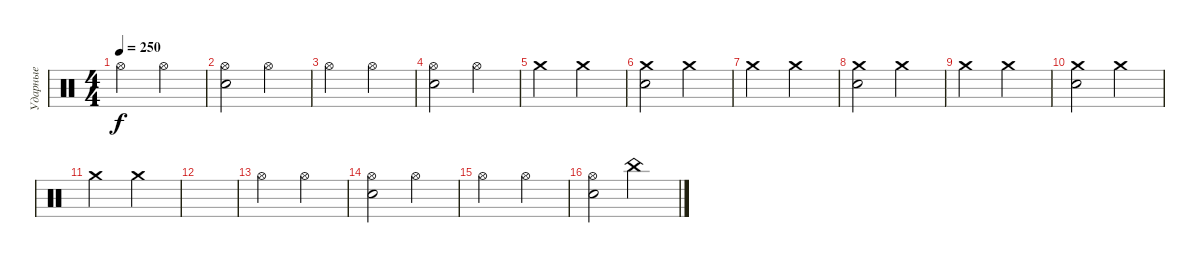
\track ("Ударные" "Ударные") {instrument percussion}
\staff {score}
\articulation defaults
\ts (4 4)
\tempo 250
\clef neutral
\ks c "Hi-Hat (open)".2{dy f} "Hi-Hat (open)".2
|
("Snare (hit) 2" "Hi-Hat (open)").2 "Hi-Hat (open)".2 |
"Hi-Hat (open)".2 "Hi-Hat (open)".2 |
("Snare (hit) 2" "Hi-Hat (open)").2 "Hi-Hat (open)".2 |
"Crash medium (hit)".2 "Crash medium (hit)".2 |
("Snare (hit) 2" "Crash medium (hit)").2 "Crash medium (hit)".2 |
"Crash medium (hit)".2 "Crash medium (hit)".2 |
("Snare (hit) 2" "Crash medium (hit)").2 "Crash medium (hit)".2 |
"Crash medium (hit)".2 "Crash medium (hit)".2 |
("Snare (hit) 2" "Crash medium (hit)").2 "Crash medium (hit)".2 |
"Crash medium (hit)".2 "Crash medium (hit)".2 |
|
"Hi-Hat (open)".2 "Hi-Hat (open)".2 |
("Snare (hit) 2" "Hi-Hat (open)").2 "Hi-Hat (open)".2 |
"Hi-Hat (open)".2 "Hi-Hat (open)".2 |
("Snare (hit) 2" "Hi-Hat (open)").2 "China (hit)".2
